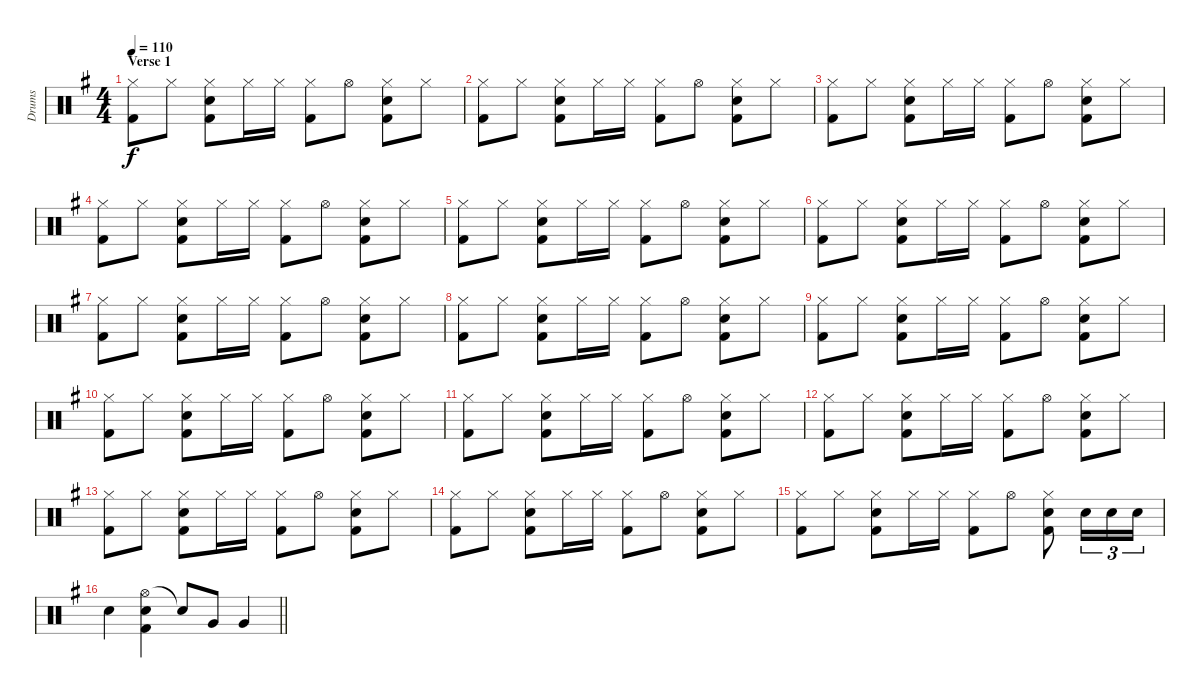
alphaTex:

\track ("Drums" "Drums") {instrument percussion}
\staff {score}
\articulation defaults
\ts (4 4)
\section ("" "Verse 1 ")
\tempo 110
\clef neutral
\ks eminor
("Hi-Hat (closed)" "Kick (hit) 2").8{dy f} "Hi-Hat (closed)".8 ("Hi-Hat (closed)" "Snare (hit) 2" "Kick (hit) 2").8 "Hi-Hat (closed)".16 "Hi-Hat (closed)".16 ("Hi-Hat (closed)" "Kick (hit) 2").8 "Hi-Hat (open)".8 ("Hi-Hat (closed)" "Snare (hit) 2" "Kick (hit) 2").8 "Hi-Hat (closed)".8 |
("Hi-Hat (closed)" "Kick (hit) 2").8 "Hi-Hat (closed)".8 ("Hi-Hat (closed)" "Snare (hit) 2" "Kick (hit) 2").8 "Hi-Hat (closed)".16 "Hi-Hat (closed)".16 ("Hi-Hat (closed)" "Kick (hit) 2").8 "Hi-Hat (open)".8 ("Hi-Hat (closed)" "Snare (hit) 2" "Kick (hit) 2").8 "Hi-Hat (closed)".8 |
("Hi-Hat (closed)" "Kick (hit) 2").8 "Hi-Hat (closed)".8 ("Hi-Hat (closed)" "Snare (hit) 2" "Kick (hit) 2").8 "Hi-Hat (closed)".16 "Hi-Hat (closed)".16 ("Hi-Hat (closed)" "Kick (hit) 2").8 "Hi-Hat (open)".8 ("Hi-Hat (closed)" "Snare (hit) 2" "Kick (hit) 2").8 "Hi-Hat (closed)".8 |
("Hi-Hat (closed)" "Kick (hit) 2").8 "Hi-Hat (closed)".8 ("Hi-Hat (closed)" "Snare (hit) 2" "Kick (hit) 2").8 "Hi-Hat (closed)".16 "Hi-Hat (closed)".16 ("Hi-Hat (closed)" "Kick (hit) 2").8 "Hi-Hat (open)".8 ("Hi-Hat (closed)" "Snare (hit) 2" "Kick (hit) 2").8 "Hi-Hat (closed)".8 |
("Hi-Hat (closed)" "Kick (hit) 2").8 "Hi-Hat (closed)".8 ("Hi-Hat (closed)" "Snare (hit) 2" "Kick (hit) 2").8 "Hi-Hat (closed)".16 "Hi-Hat (closed)".16 ("Hi-Hat (closed)" "Kick (hit) 2").8 "Hi-Hat (open)".8 ("Hi-Hat (closed)" "Snare (hit) 2" "Kick (hit) 2").8 "Hi-Hat (closed)".8 |
("Hi-Hat (closed)" "Kick (hit) 2").8 "Hi-Hat (closed)".8 ("Hi-Hat (closed)" "Snare (hit) 2" "Kick (hit) 2").8 "Hi-Hat (closed)".16 "Hi-Hat (closed)".16 ("Hi-Hat (closed)" "Kick (hit) 2").8 "Hi-Hat (open)".8 ("Hi-Hat (closed)" "Snare (hit) 2" "Kick (hit) 2").8 "Hi-Hat (closed)".8 |
("Hi-Hat (closed)" "Kick (hit) 2").8 "Hi-Hat (closed)".8 ("Hi-Hat (closed)" "Snare (hit) 2" "Kick (hit) 2").8 "Hi-Hat (closed)".16 "Hi-Hat (closed)".16 ("Hi-Hat (closed)" "Kick (hit) 2").8 "Hi-Hat (open)".8 ("Hi-Hat (closed)" "Snare (hit) 2" "Kick (hit) 2").8 "Hi-Hat (closed)".8 |
("Hi-Hat (closed)" "Kick (hit) 2").8 "Hi-Hat (closed)".8 ("Hi-Hat (closed)" "Snare (hit) 2" "Kick (hit) 2").8 "Hi-Hat (closed)".16 "Hi-Hat (closed)".16 ("Hi-Hat (closed)" "Kick (hit) 2").8 "Hi-Hat (open)".8 ("Hi-Hat (closed)" "Snare (hit) 2" "Kick (hit) 2").8 "Hi-Hat (closed)".8 |
("Hi-Hat (closed)" "Kick (hit) 2").8 "Hi-Hat (closed)".8 ("Hi-Hat (closed)" "Snare (hit) 2" "Kick (hit) 2").8 "Hi-Hat (closed)".16 "Hi-Hat (closed)".16 ("Hi-Hat (closed)" "Kick (hit) 2").8 "Hi-Hat (open)".8 ("Hi-Hat (closed)" "Snare (hit) 2" "Kick (hit) 2").8 "Hi-Hat (closed)".8 |
("Hi-Hat (closed)" "Kick (hit) 2").8 "Hi-Hat (closed)".8 ("Hi-Hat (closed)" "Snare (hit) 2" "Kick (hit) 2").8 "Hi-Hat (closed)".16 "Hi-Hat (closed)".16 ("Hi-Hat (closed)" "Kick (hit) 2").8 "Hi-Hat (open)".8 ("Hi-Hat (closed)" "Snare (hit) 2" "Kick (hit) 2").8 "Hi-Hat (closed)".8 |
("Hi-Hat (closed)" "Kick (hit) 2").8 "Hi-Hat (closed)".8 ("Hi-Hat (closed)" "Snare (hit) 2" "Kick (hit) 2").8 "Hi-Hat (closed)".16 "Hi-Hat (closed)".16 ("Hi-Hat (closed)" "Kick (hit) 2").8 "Hi-Hat (open)".8 ("Hi-Hat (closed)" "Snare (hit) 2" "Kick (hit) 2").8 "Hi-Hat (closed)".8 |
("Hi-Hat (closed)" "Kick (hit) 2").8 "Hi-Hat (closed)".8 ("Hi-Hat (closed)" "Snare (hit) 2" "Kick (hit) 2").8 "Hi-Hat (closed)".16 "Hi-Hat (closed)".16 ("Hi-Hat (closed)" "Kick (hit) 2").8 "Hi-Hat (open)".8 ("Hi-Hat (closed)" "Snare (hit) 2" "Kick (hit) 2").8 "Hi-Hat (closed)".8 |
("Hi-Hat (closed)" "Kick (hit) 2").8 "Hi-Hat (closed)".8 ("Hi-Hat (closed)" "Snare (hit) 2" "Kick (hit) 2").8 "Hi-Hat (closed)".16 "Hi-Hat (closed)".16 ("Hi-Hat (closed)" "Kick (hit) 2").8 "Hi-Hat (open)".8 ("Hi-Hat (closed)" "Snare (hit) 2" "Kick (hit) 2").8 "Hi-Hat (closed)".8 |
("Hi-Hat (closed)" "Kick (hit) 2").8 "Hi-Hat (closed)".8 ("Hi-Hat (closed)" "Snare (hit) 2" "Kick (hit) 2").8 "Hi-Hat (closed)".16 "Hi-Hat (closed)".16 ("Hi-Hat (closed)" "Kick (hit) 2").8 "Hi-Hat (open)".8 ("Hi-Hat (closed)" "Snare (hit) 2" "Kick (hit) 2").8 "Hi-Hat (closed)".8 |
("Hi-Hat (closed)" "Kick (hit) 2").8 "Hi-Hat (closed)".8 ("Hi-Hat (closed)" "Snare (hit) 2" "Kick (hit) 2").8 "Hi-Hat (closed)".16 "Hi-Hat (closed)".16 ("Hi-Hat (closed)" "Kick (hit) 2").8 "Hi-Hat (open)".8 ("Hi-Hat (closed)" "Snare (hit) 2" "Kick (hit) 2").8 "Snare (hit) 2".16{tu (3 2)} "Snare (hit) 2".16{tu (3 2)} "Snare (hit) 2".16{tu (3 2)} |
\barLineRight lightlight "Snare (hit) 2".4
("Hi-Hat (open)" "Snare (hit) 2" "Kick (hit) 2").4 "Snare (hit)"{t}.8 "Very Low Tom (hit)".8 "Very Low Tom (hit)".4
